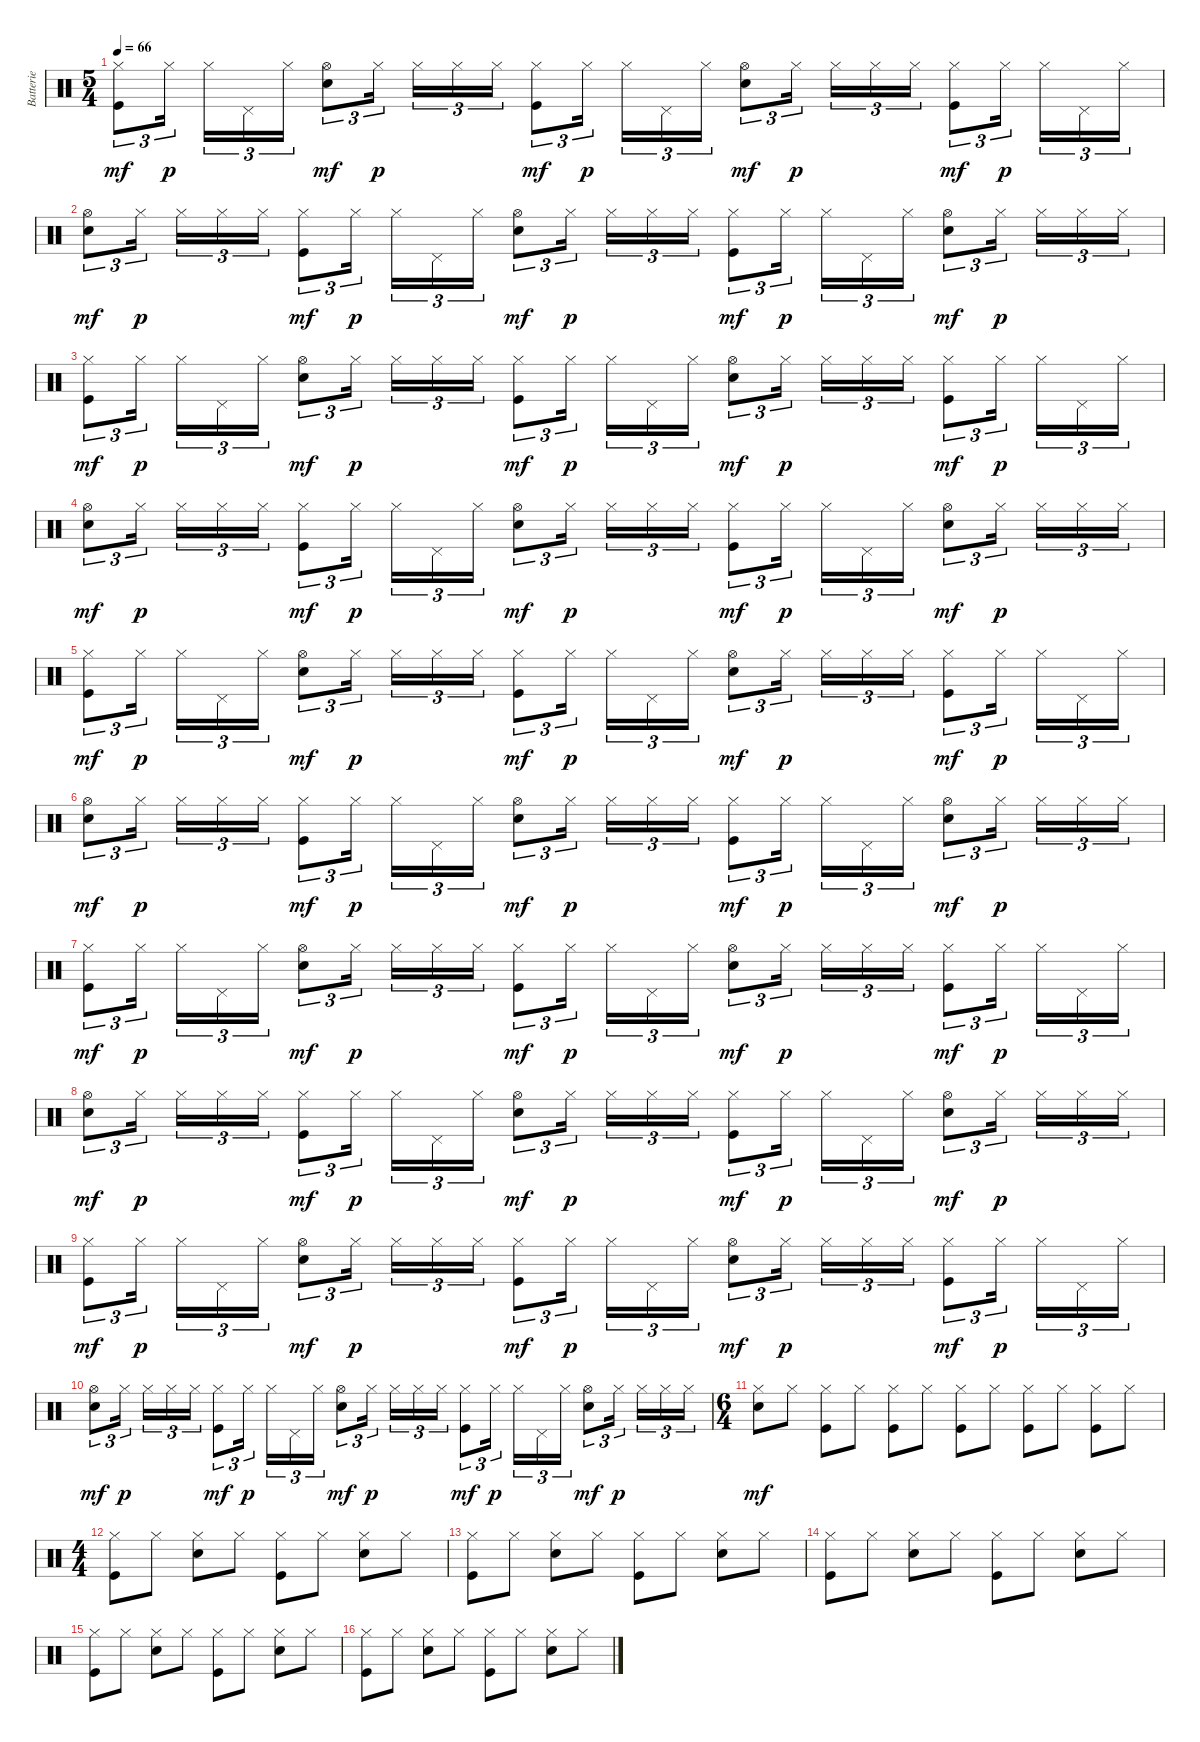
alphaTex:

\track ("Batterie" "Batterie") {instrument percussion}
\staff {score}
\articulation defaults
\ts (5 4)
\tempo 66
\clef neutral
\ks c
("Hi-Hat (closed)" "Kick (hit)").8{tu (3 2) dy mf} "Hi-Hat (closed)".16{tu (3 2) dy p} "Hi-Hat (closed)".16{tu (3 2)} "Pedal Hi-Hat (hit)".16{tu (3 2)} "Hi-Hat (closed)".16{tu (3 2)} ("Hi-Hat (open)" "Snare (hit) 2").8{tu (3 2) dy mf} "Hi-Hat (closed)".16{tu (3 2) dy p} "Hi-Hat (closed)".16{tu (3 2)} "Hi-Hat (closed)".16{tu (3 2)} "Hi-Hat (closed)".16{tu (3 2)} ("Hi-Hat (closed)" "Kick (hit)").8{tu (3 2) dy mf} "Hi-Hat (closed)".16{tu (3 2) dy p} "Hi-Hat (closed)".16{tu (3 2)} "Pedal Hi-Hat (hit)".16{tu (3 2)} "Hi-Hat (closed)".16{tu (3 2)} ("Hi-Hat (open)" "Snare (hit) 2").8{tu (3 2) dy mf} "Hi-Hat (closed)".16{tu (3 2) dy p} "Hi-Hat (closed)".16{tu (3 2)} "Hi-Hat (closed)".16{tu (3 2)} "Hi-Hat (closed)".16{tu (3 2)} ("Hi-Hat (closed)" "Kick (hit)").8{tu (3 2) dy mf} "Hi-Hat (closed)".16{tu (3 2) dy p} "Hi-Hat (closed)".16{tu (3 2)} "Pedal Hi-Hat (hit)".16{tu (3 2)} "Hi-Hat (closed)".16{tu (3 2)} |
("Hi-Hat (open)" "Snare (hit) 2").8{tu (3 2) dy mf} "Hi-Hat (closed)".16{tu (3 2) dy p} "Hi-Hat (closed)".16{tu (3 2)} "Hi-Hat (closed)".16{tu (3 2)} "Hi-Hat (closed)".16{tu (3 2)} ("Hi-Hat (closed)" "Kick (hit)").8{tu (3 2) dy mf} "Hi-Hat (closed)".16{tu (3 2) dy p} "Hi-Hat (closed)".16{tu (3 2)} "Pedal Hi-Hat (hit)".16{tu (3 2)} "Hi-Hat (closed)".16{tu (3 2)} ("Hi-Hat (open)" "Snare (hit) 2").8{tu (3 2) dy mf} "Hi-Hat (closed)".16{tu (3 2) dy p} "Hi-Hat (closed)".16{tu (3 2)} "Hi-Hat (closed)".16{tu (3 2)} "Hi-Hat (closed)".16{tu (3 2)} ("Hi-Hat (closed)" "Kick (hit)").8{tu (3 2) dy mf} "Hi-Hat (closed)".16{tu (3 2) dy p} "Hi-Hat (closed)".16{tu (3 2)} "Pedal Hi-Hat (hit)".16{tu (3 2)} "Hi-Hat (closed)".16{tu (3 2)} ("Hi-Hat (open)" "Snare (hit) 2").8{tu (3 2) dy mf} "Hi-Hat (closed)".16{tu (3 2) dy p} "Hi-Hat (closed)".16{tu (3 2)} "Hi-Hat (closed)".16{tu (3 2)} "Hi-Hat (closed)".16{tu (3 2)} |
("Hi-Hat (closed)" "Kick (hit)").8{tu (3 2) dy mf} "Hi-Hat (closed)".16{tu (3 2) dy p} "Hi-Hat (closed)".16{tu (3 2)} "Pedal Hi-Hat (hit)".16{tu (3 2)} "Hi-Hat (closed)".16{tu (3 2)} ("Hi-Hat (open)" "Snare (hit) 2").8{tu (3 2) dy mf} "Hi-Hat (closed)".16{tu (3 2) dy p} "Hi-Hat (closed)".16{tu (3 2)} "Hi-Hat (closed)".16{tu (3 2)} "Hi-Hat (closed)".16{tu (3 2)} ("Hi-Hat (closed)" "Kick (hit)").8{tu (3 2) dy mf} "Hi-Hat (closed)".16{tu (3 2) dy p} "Hi-Hat (closed)".16{tu (3 2)} "Pedal Hi-Hat (hit)".16{tu (3 2)} "Hi-Hat (closed)".16{tu (3 2)} ("Hi-Hat (open)" "Snare (hit) 2").8{tu (3 2) dy mf} "Hi-Hat (closed)".16{tu (3 2) dy p} "Hi-Hat (closed)".16{tu (3 2)} "Hi-Hat (closed)".16{tu (3 2)} "Hi-Hat (closed)".16{tu (3 2)} ("Hi-Hat (closed)" "Kick (hit)").8{tu (3 2) dy mf} "Hi-Hat (closed)".16{tu (3 2) dy p} "Hi-Hat (closed)".16{tu (3 2)} "Pedal Hi-Hat (hit)".16{tu (3 2)} "Hi-Hat (closed)".16{tu (3 2)} |
("Hi-Hat (open)" "Snare (hit) 2").8{tu (3 2) dy mf} "Hi-Hat (closed)".16{tu (3 2) dy p} "Hi-Hat (closed)".16{tu (3 2)} "Hi-Hat (closed)".16{tu (3 2)} "Hi-Hat (closed)".16{tu (3 2)} ("Hi-Hat (closed)" "Kick (hit)").8{tu (3 2) dy mf} "Hi-Hat (closed)".16{tu (3 2) dy p} "Hi-Hat (closed)".16{tu (3 2)} "Pedal Hi-Hat (hit)".16{tu (3 2)} "Hi-Hat (closed)".16{tu (3 2)} ("Hi-Hat (open)" "Snare (hit) 2").8{tu (3 2) dy mf} "Hi-Hat (closed)".16{tu (3 2) dy p} "Hi-Hat (closed)".16{tu (3 2)} "Hi-Hat (closed)".16{tu (3 2)} "Hi-Hat (closed)".16{tu (3 2)} ("Hi-Hat (closed)" "Kick (hit)").8{tu (3 2) dy mf} "Hi-Hat (closed)".16{tu (3 2) dy p} "Hi-Hat (closed)".16{tu (3 2)} "Pedal Hi-Hat (hit)".16{tu (3 2)} "Hi-Hat (closed)".16{tu (3 2)} ("Hi-Hat (open)" "Snare (hit) 2").8{tu (3 2) dy mf} "Hi-Hat (closed)".16{tu (3 2) dy p} "Hi-Hat (closed)".16{tu (3 2)} "Hi-Hat (closed)".16{tu (3 2)} "Hi-Hat (closed)".16{tu (3 2)} |
("Hi-Hat (closed)" "Kick (hit)").8{tu (3 2) dy mf} "Hi-Hat (closed)".16{tu (3 2) dy p} "Hi-Hat (closed)".16{tu (3 2)} "Pedal Hi-Hat (hit)".16{tu (3 2)} "Hi-Hat (closed)".16{tu (3 2)} ("Hi-Hat (open)" "Snare (hit) 2").8{tu (3 2) dy mf} "Hi-Hat (closed)".16{tu (3 2) dy p} "Hi-Hat (closed)".16{tu (3 2)} "Hi-Hat (closed)".16{tu (3 2)} "Hi-Hat (closed)".16{tu (3 2)} ("Hi-Hat (closed)" "Kick (hit)").8{tu (3 2) dy mf} "Hi-Hat (closed)".16{tu (3 2) dy p} "Hi-Hat (closed)".16{tu (3 2)} "Pedal Hi-Hat (hit)".16{tu (3 2)} "Hi-Hat (closed)".16{tu (3 2)} ("Hi-Hat (open)" "Snare (hit) 2").8{tu (3 2) dy mf} "Hi-Hat (closed)".16{tu (3 2) dy p} "Hi-Hat (closed)".16{tu (3 2)} "Hi-Hat (closed)".16{tu (3 2)} "Hi-Hat (closed)".16{tu (3 2)} ("Hi-Hat (closed)" "Kick (hit)").8{tu (3 2) dy mf} "Hi-Hat (closed)".16{tu (3 2) dy p} "Hi-Hat (closed)".16{tu (3 2)} "Pedal Hi-Hat (hit)".16{tu (3 2)} "Hi-Hat (closed)".16{tu (3 2)} |
("Hi-Hat (open)" "Snare (hit) 2").8{tu (3 2) dy mf} "Hi-Hat (closed)".16{tu (3 2) dy p} "Hi-Hat (closed)".16{tu (3 2)} "Hi-Hat (closed)".16{tu (3 2)} "Hi-Hat (closed)".16{tu (3 2)} ("Hi-Hat (closed)" "Kick (hit)").8{tu (3 2) dy mf} "Hi-Hat (closed)".16{tu (3 2) dy p} "Hi-Hat (closed)".16{tu (3 2)} "Pedal Hi-Hat (hit)".16{tu (3 2)} "Hi-Hat (closed)".16{tu (3 2)} ("Hi-Hat (open)" "Snare (hit) 2").8{tu (3 2) dy mf} "Hi-Hat (closed)".16{tu (3 2) dy p} "Hi-Hat (closed)".16{tu (3 2)} "Hi-Hat (closed)".16{tu (3 2)} "Hi-Hat (closed)".16{tu (3 2)} ("Hi-Hat (closed)" "Kick (hit)").8{tu (3 2) dy mf} "Hi-Hat (closed)".16{tu (3 2) dy p} "Hi-Hat (closed)".16{tu (3 2)} "Pedal Hi-Hat (hit)".16{tu (3 2)} "Hi-Hat (closed)".16{tu (3 2)} ("Hi-Hat (open)" "Snare (hit) 2").8{tu (3 2) dy mf} "Hi-Hat (closed)".16{tu (3 2) dy p} "Hi-Hat (closed)".16{tu (3 2)} "Hi-Hat (closed)".16{tu (3 2)} "Hi-Hat (closed)".16{tu (3 2)} |
("Hi-Hat (closed)" "Kick (hit)").8{tu (3 2) dy mf} "Hi-Hat (closed)".16{tu (3 2) dy p} "Hi-Hat (closed)".16{tu (3 2)} "Pedal Hi-Hat (hit)".16{tu (3 2)} "Hi-Hat (closed)".16{tu (3 2)} ("Hi-Hat (open)" "Snare (hit) 2").8{tu (3 2) dy mf} "Hi-Hat (closed)".16{tu (3 2) dy p} "Hi-Hat (closed)".16{tu (3 2)} "Hi-Hat (closed)".16{tu (3 2)} "Hi-Hat (closed)".16{tu (3 2)} ("Hi-Hat (closed)" "Kick (hit)").8{tu (3 2) dy mf} "Hi-Hat (closed)".16{tu (3 2) dy p} "Hi-Hat (closed)".16{tu (3 2)} "Pedal Hi-Hat (hit)".16{tu (3 2)} "Hi-Hat (closed)".16{tu (3 2)} ("Hi-Hat (open)" "Snare (hit) 2").8{tu (3 2) dy mf} "Hi-Hat (closed)".16{tu (3 2) dy p} "Hi-Hat (closed)".16{tu (3 2)} "Hi-Hat (closed)".16{tu (3 2)} "Hi-Hat (closed)".16{tu (3 2)} ("Hi-Hat (closed)" "Kick (hit)").8{tu (3 2) dy mf} "Hi-Hat (closed)".16{tu (3 2) dy p} "Hi-Hat (closed)".16{tu (3 2)} "Pedal Hi-Hat (hit)".16{tu (3 2)} "Hi-Hat (closed)".16{tu (3 2)} |
("Hi-Hat (open)" "Snare (hit) 2").8{tu (3 2) dy mf} "Hi-Hat (closed)".16{tu (3 2) dy p} "Hi-Hat (closed)".16{tu (3 2)} "Hi-Hat (closed)".16{tu (3 2)} "Hi-Hat (closed)".16{tu (3 2)} ("Hi-Hat (closed)" "Kick (hit)").8{tu (3 2) dy mf} "Hi-Hat (closed)".16{tu (3 2) dy p} "Hi-Hat (closed)".16{tu (3 2)} "Pedal Hi-Hat (hit)".16{tu (3 2)} "Hi-Hat (closed)".16{tu (3 2)} ("Hi-Hat (open)" "Snare (hit) 2").8{tu (3 2) dy mf} "Hi-Hat (closed)".16{tu (3 2) dy p} "Hi-Hat (closed)".16{tu (3 2)} "Hi-Hat (closed)".16{tu (3 2)} "Hi-Hat (closed)".16{tu (3 2)} ("Hi-Hat (closed)" "Kick (hit)").8{tu (3 2) dy mf} "Hi-Hat (closed)".16{tu (3 2) dy p} "Hi-Hat (closed)".16{tu (3 2)} "Pedal Hi-Hat (hit)".16{tu (3 2)} "Hi-Hat (closed)".16{tu (3 2)} ("Hi-Hat (open)" "Snare (hit) 2").8{tu (3 2) dy mf} "Hi-Hat (closed)".16{tu (3 2) dy p} "Hi-Hat (closed)".16{tu (3 2)} "Hi-Hat (closed)".16{tu (3 2)} "Hi-Hat (closed)".16{tu (3 2)} |
("Hi-Hat (closed)" "Kick (hit)").8{tu (3 2) dy mf} "Hi-Hat (closed)".16{tu (3 2) dy p} "Hi-Hat (closed)".16{tu (3 2)} "Pedal Hi-Hat (hit)".16{tu (3 2)} "Hi-Hat (closed)".16{tu (3 2)} ("Hi-Hat (open)" "Snare (hit) 2").8{tu (3 2) dy mf} "Hi-Hat (closed)".16{tu (3 2) dy p} "Hi-Hat (closed)".16{tu (3 2)} "Hi-Hat (closed)".16{tu (3 2)} "Hi-Hat (closed)".16{tu (3 2)} ("Hi-Hat (closed)" "Kick (hit)").8{tu (3 2) dy mf} "Hi-Hat (closed)".16{tu (3 2) dy p} "Hi-Hat (closed)".16{tu (3 2)} "Pedal Hi-Hat (hit)".16{tu (3 2)} "Hi-Hat (closed)".16{tu (3 2)} ("Hi-Hat (open)" "Snare (hit) 2").8{tu (3 2) dy mf} "Hi-Hat (closed)".16{tu (3 2) dy p} "Hi-Hat (closed)".16{tu (3 2)} "Hi-Hat (closed)".16{tu (3 2)} "Hi-Hat (closed)".16{tu (3 2)} ("Hi-Hat (closed)" "Kick (hit)").8{tu (3 2) dy mf} "Hi-Hat (closed)".16{tu (3 2) dy p} "Hi-Hat (closed)".16{tu (3 2)} "Pedal Hi-Hat (hit)".16{tu (3 2)} "Hi-Hat (closed)".16{tu (3 2)} |
("Hi-Hat (open)" "Snare (hit) 2").8{tu (3 2) dy mf} "Hi-Hat (closed)".16{tu (3 2) dy p} "Hi-Hat (closed)".16{tu (3 2)} "Hi-Hat (closed)".16{tu (3 2)} "Hi-Hat (closed)".16{tu (3 2)} ("Hi-Hat (closed)" "Kick (hit)").8{tu (3 2) dy mf} "Hi-Hat (closed)".16{tu (3 2) dy p} "Hi-Hat (closed)".16{tu (3 2)} "Pedal Hi-Hat (hit)".16{tu (3 2)} "Hi-Hat (closed)".16{tu (3 2)} ("Hi-Hat (open)" "Snare (hit) 2").8{tu (3 2) dy mf} "Hi-Hat (closed)".16{tu (3 2) dy p} "Hi-Hat (closed)".16{tu (3 2)} "Hi-Hat (closed)".16{tu (3 2)} "Hi-Hat (closed)".16{tu (3 2)} ("Hi-Hat (closed)" "Kick (hit)").8{tu (3 2) dy mf} "Hi-Hat (closed)".16{tu (3 2) dy p} "Hi-Hat (closed)".16{tu (3 2)} "Pedal Hi-Hat (hit)".16{tu (3 2)} "Hi-Hat (closed)".16{tu (3 2)} ("Hi-Hat (open)" "Snare (hit) 2").8{tu (3 2) dy mf} "Hi-Hat (closed)".16{tu (3 2) dy p} "Hi-Hat (closed)".16{tu (3 2)} "Hi-Hat (closed)".16{tu (3 2)} "Hi-Hat (closed)".16{tu (3 2)} |
\ts (6 4)
("Hi-Hat (closed)" "Snare (hit) 2").8{dy mf} "Hi-Hat (closed)".8 ("Hi-Hat (closed)" "Kick (hit)").8 "Hi-Hat (closed)".8 ("Hi-Hat (closed)" "Kick (hit)").8 "Hi-Hat (closed)".8 ("Hi-Hat (closed)" "Kick (hit)").8 "Hi-Hat (closed)".8 ("Hi-Hat (closed)" "Kick (hit)").8 "Hi-Hat (closed)".8 ("Hi-Hat (closed)" "Kick (hit)").8 "Hi-Hat (closed)".8 |
\ts (4 4)
("Hi-Hat (closed)" "Kick (hit)").8 "Hi-Hat (closed)".8 ("Hi-Hat (closed)" "Snare (hit) 2").8 "Hi-Hat (closed)".8 ("Hi-Hat (closed)" "Kick (hit)").8 "Hi-Hat (closed)".8 ("Hi-Hat (closed)" "Snare (hit) 2").8 "Hi-Hat (closed)".8 |
("Hi-Hat (closed)" "Kick (hit)").8 "Hi-Hat (closed)".8 ("Hi-Hat (closed)" "Snare (hit) 2").8 "Hi-Hat (closed)".8 ("Hi-Hat (closed)" "Kick (hit)").8 "Hi-Hat (closed)".8 ("Hi-Hat (closed)" "Snare (hit) 2").8 "Hi-Hat (closed)".8 |
("Hi-Hat (closed)" "Kick (hit)").8 "Hi-Hat (closed)".8 ("Hi-Hat (closed)" "Snare (hit) 2").8 "Hi-Hat (closed)".8 ("Hi-Hat (closed)" "Kick (hit)").8 "Hi-Hat (closed)".8 ("Hi-Hat (closed)" "Snare (hit) 2").8 "Hi-Hat (closed)".8 |
("Hi-Hat (closed)" "Kick (hit)").8 "Hi-Hat (closed)".8 ("Hi-Hat (closed)" "Snare (hit) 2").8 "Hi-Hat (closed)".8 ("Hi-Hat (closed)" "Kick (hit)").8 "Hi-Hat (closed)".8 ("Hi-Hat (closed)" "Snare (hit) 2").8 "Hi-Hat (closed)".8 |
("Hi-Hat (closed)" "Kick (hit)").8 "Hi-Hat (closed)".8 ("Hi-Hat (closed)" "Snare (hit) 2").8 "Hi-Hat (closed)".8 ("Hi-Hat (closed)" "Kick (hit)").8 "Hi-Hat (closed)".8 ("Hi-Hat (closed)" "Snare (hit) 2").8 "Hi-Hat (closed)".8
